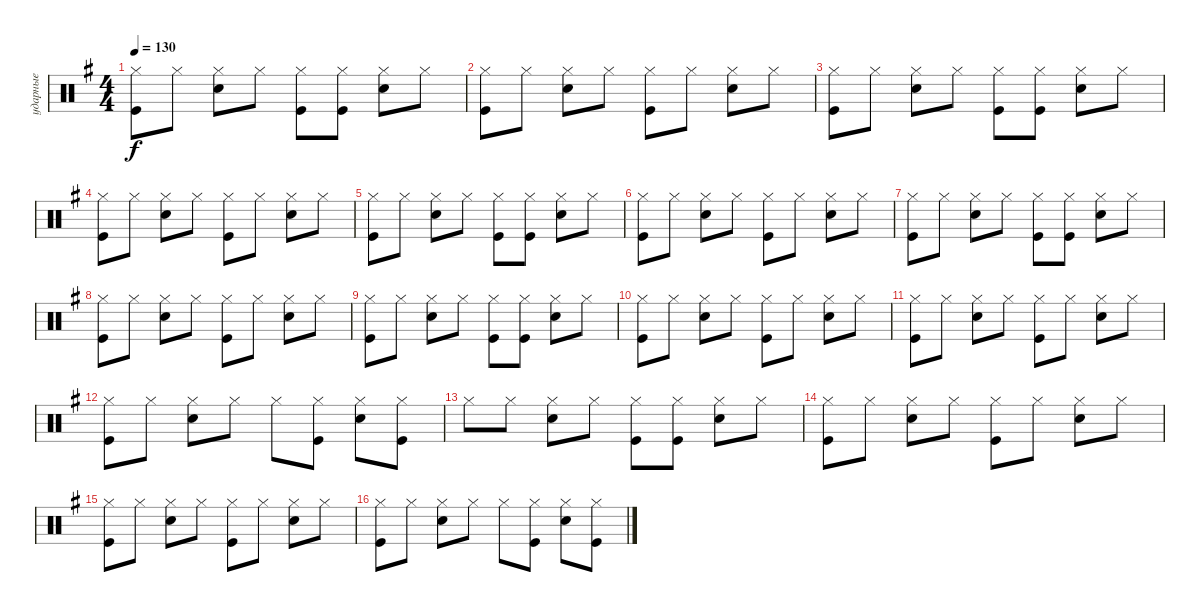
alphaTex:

\track ("ударные" "ударные") {instrument percussion}
\staff {score}
\articulation defaults
\ts (4 4)
\tempo 130
\clef neutral
\ks eminor
("Kick (hit)" "Hi-Hat (closed)").8{dy f} "Hi-Hat (closed)".8 ("Snare (hit) 2" "Hi-Hat (closed)").8 "Hi-Hat (closed)".8 ("Kick (hit)" "Hi-Hat (closed)").8 ("Hi-Hat (closed)" "Kick (hit)").8 ("Snare (hit) 2" "Hi-Hat (closed)").8 "Hi-Hat (closed)".8 |
("Kick (hit)" "Hi-Hat (closed)").8 "Hi-Hat (closed)".8 ("Snare (hit) 2" "Hi-Hat (closed)").8 "Hi-Hat (closed)".8 ("Kick (hit)" "Hi-Hat (closed)").8 "Hi-Hat (closed)".8 ("Snare (hit) 2" "Hi-Hat (closed)").8 "Hi-Hat (closed)".8 |
("Kick (hit)" "Hi-Hat (closed)").8 "Hi-Hat (closed)".8 ("Snare (hit) 2" "Hi-Hat (closed)").8 "Hi-Hat (closed)".8 ("Kick (hit)" "Hi-Hat (closed)").8 ("Hi-Hat (closed)" "Kick (hit)").8 ("Snare (hit) 2" "Hi-Hat (closed)").8 "Hi-Hat (closed)".8 |
("Kick (hit)" "Hi-Hat (closed)").8 "Hi-Hat (closed)".8 ("Snare (hit) 2" "Hi-Hat (closed)").8 "Hi-Hat (closed)".8 ("Kick (hit)" "Hi-Hat (closed)").8 "Hi-Hat (closed)".8 ("Snare (hit) 2" "Hi-Hat (closed)").8 "Hi-Hat (closed)".8 |
("Kick (hit)" "Hi-Hat (closed)").8 "Hi-Hat (closed)".8 ("Snare (hit) 2" "Hi-Hat (closed)").8 "Hi-Hat (closed)".8 ("Kick (hit)" "Hi-Hat (closed)").8 ("Hi-Hat (closed)" "Kick (hit)").8 ("Snare (hit) 2" "Hi-Hat (closed)").8 "Hi-Hat (closed)".8 |
("Kick (hit)" "Hi-Hat (closed)").8 "Hi-Hat (closed)".8 ("Snare (hit) 2" "Hi-Hat (closed)").8 "Hi-Hat (closed)".8 ("Kick (hit)" "Hi-Hat (closed)").8 "Hi-Hat (closed)".8 ("Snare (hit) 2" "Hi-Hat (closed)").8 "Hi-Hat (closed)".8 |
("Kick (hit)" "Hi-Hat (closed)").8 "Hi-Hat (closed)".8 ("Snare (hit) 2" "Hi-Hat (closed)").8 "Hi-Hat (closed)".8 ("Kick (hit)" "Hi-Hat (closed)").8 ("Hi-Hat (closed)" "Kick (hit)").8 ("Snare (hit) 2" "Hi-Hat (closed)").8 "Hi-Hat (closed)".8 |
("Kick (hit)" "Hi-Hat (closed)").8 "Hi-Hat (closed)".8 ("Snare (hit) 2" "Hi-Hat (closed)").8 "Hi-Hat (closed)".8 ("Kick (hit)" "Hi-Hat (closed)").8 "Hi-Hat (closed)".8 ("Snare (hit) 2" "Hi-Hat (closed)").8 "Hi-Hat (closed)".8 |
("Kick (hit)" "Hi-Hat (closed)").8 "Hi-Hat (closed)".8 ("Snare (hit) 2" "Hi-Hat (closed)").8 "Hi-Hat (closed)".8 ("Kick (hit)" "Hi-Hat (closed)").8 ("Hi-Hat (closed)" "Kick (hit)").8 ("Snare (hit) 2" "Hi-Hat (closed)").8 "Hi-Hat (closed)".8 |
("Kick (hit)" "Hi-Hat (closed)").8 "Hi-Hat (closed)".8 ("Snare (hit) 2" "Hi-Hat (closed)").8 "Hi-Hat (closed)".8 ("Kick (hit)" "Hi-Hat (closed)").8 "Hi-Hat (closed)".8 ("Snare (hit) 2" "Hi-Hat (closed)").8 "Hi-Hat (closed)".8 |
("Kick (hit)" "Hi-Hat (closed)").8 "Hi-Hat (closed)".8 ("Snare (hit) 2" "Hi-Hat (closed)").8 "Hi-Hat (closed)".8 ("Kick (hit)" "Hi-Hat (closed)").8 "Hi-Hat (closed)".8 ("Snare (hit) 2" "Hi-Hat (closed)").8 "Hi-Hat (closed)".8 |
("Kick (hit)" "Hi-Hat (closed)").8 "Hi-Hat (closed)".8 ("Snare (hit) 2" "Hi-Hat (closed)").8 "Hi-Hat (closed)".8 "Hi-Hat (closed)".8 ("Hi-Hat (closed)" "Kick (hit)").8 ("Snare (hit) 2" "Hi-Hat (closed)").8 ("Hi-Hat (closed)" "Kick (hit)").8 |
"Hi-Hat (closed)".8 "Hi-Hat (closed)".8 ("Snare (hit) 2" "Hi-Hat (closed)").8 "Hi-Hat (closed)".8 ("Kick (hit)" "Hi-Hat (closed)").8 ("Hi-Hat (closed)" "Kick (hit)").8 ("Snare (hit) 2" "Hi-Hat (closed)").8 "Hi-Hat (closed)".8 |
("Kick (hit)" "Hi-Hat (closed)").8 "Hi-Hat (closed)".8 ("Snare (hit) 2" "Hi-Hat (closed)").8 "Hi-Hat (closed)".8 ("Kick (hit)" "Hi-Hat (closed)").8 "Hi-Hat (closed)".8 ("Snare (hit) 2" "Hi-Hat (closed)").8 "Hi-Hat (closed)".8 |
("Kick (hit)" "Hi-Hat (closed)").8 "Hi-Hat (closed)".8 ("Snare (hit) 2" "Hi-Hat (closed)").8 "Hi-Hat (closed)".8 ("Kick (hit)" "Hi-Hat (closed)").8 "Hi-Hat (closed)".8 ("Snare (hit) 2" "Hi-Hat (closed)").8 "Hi-Hat (closed)".8 |
("Kick (hit)" "Hi-Hat (closed)").8 "Hi-Hat (closed)".8 ("Snare (hit) 2" "Hi-Hat (closed)").8 "Hi-Hat (closed)".8 "Hi-Hat (closed)".8 ("Hi-Hat (closed)" "Kick (hit)").8 ("Snare (hit) 2" "Hi-Hat (closed)").8 ("Hi-Hat (closed)" "Kick (hit)").8
